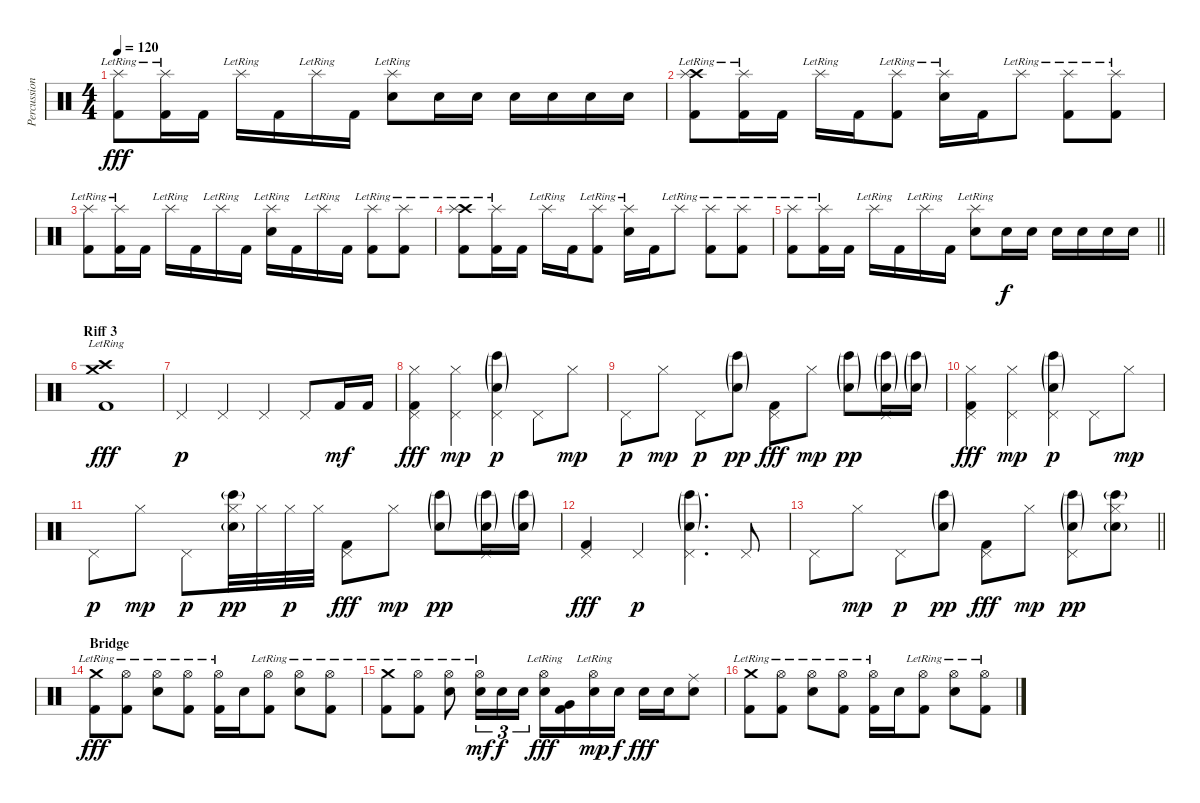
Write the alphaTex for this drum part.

\track ("Percussions" "Percussion") {instrument percussion}
\staff {score}
\articulation defaults
\ts (4 4)
\tempo 120
\clef neutral
\ks c
("Splash (hit)"{lr} "Kick (hit) 2").8{dy fff} ("Splash (hit)"{lr} "Kick (hit) 2").16 "Kick (hit) 2".16 "Splash (hit)"{lr}.16 "Kick (hit) 2".16 "Splash (hit)"{lr}.16 "Kick (hit) 2".16 ("Splash (hit)"{lr} "Electric Snare (hit)").8 "Electric Snare (hit)".16 "Electric Snare (hit)".16 "Electric Snare (hit)".16 "Electric Snare (hit)".16 "Electric Snare (hit)".16 "Electric Snare (hit)".16 |
("Crash high (hit)"{lr} "Splash (hit)"{lr} "Kick (hit) 2").8 ("Splash (hit)"{lr} "Kick (hit) 2").16 "Kick (hit) 2".16 "Splash (hit)"{lr}.16 "Kick (hit) 2".16 ("Splash (hit)"{lr} "Kick (hit) 2").8 ("Splash (hit)"{lr} "Electric Snare (hit)").16 "Kick (hit) 2".16 "Splash (hit)"{lr}.8 ("Splash (hit)"{lr} "Kick (hit) 2").8 ("Splash (hit)"{lr} "Kick (hit) 2").8 |
("Splash (hit)"{lr} "Kick (hit) 2").8 ("Splash (hit)"{lr} "Kick (hit) 2").16 "Kick (hit) 2".16 "Splash (hit)"{lr}.16 "Kick (hit) 2".16 "Splash (hit)"{lr}.16 "Kick (hit) 2".16 ("Splash (hit)"{lr} "Electric Snare (hit)").16 "Kick (hit) 2".16 "Splash (hit)"{lr}.16 "Kick (hit) 2".16 ("Splash (hit)"{lr} "Kick (hit) 2").8 ("Splash (hit)"{lr} "Kick (hit) 2").8 |
("Crash high (hit)"{lr} "Splash (hit)"{lr} "Kick (hit) 2").8 ("Splash (hit)"{lr} "Kick (hit) 2").16 "Kick (hit) 2".16 "Splash (hit)"{lr}.16 "Kick (hit) 2".16 ("Splash (hit)"{lr} "Kick (hit) 2").8 ("Splash (hit)"{lr} "Electric Snare (hit)").16 "Kick (hit) 2".16 "Splash (hit)"{lr}.8 ("Splash (hit)"{lr} "Kick (hit) 2").8 ("Splash (hit)"{lr} "Kick (hit) 2").8 |
\barLineRight lightlight
("Splash (hit)"{lr} "Kick (hit) 2").8 ("Splash (hit)"{lr} "Kick (hit) 2").16 "Kick (hit) 2".16 "Splash (hit)"{lr}.16 "Kick (hit) 2".16 "Splash (hit)"{lr}.16 "Kick (hit) 2".16 ("Splash (hit)"{lr} "Electric Snare (hit)").8 "Electric Snare (hit)".16{dy f} "Electric Snare (hit)".16 "Electric Snare (hit)".16 "Electric Snare (hit)".16 "Electric Snare (hit)".16 "Electric Snare (hit)".16 |
\section ("" "Riff 3")
("Crash high (hit)"{lr} "Crash medium (hit)"{lr} "Kick (hit) 2").1{dy fff} |
"Pedal Hi-Hat (hit)".4{dy p} "Pedal Hi-Hat (hit)".4 "Pedal Hi-Hat (hit)".4 "Pedal Hi-Hat (hit)".8 "Kick (hit) 2".16{dy mf} "Kick (hit) 2".16 |
("Pedal Hi-Hat (hit)" "Hi-Hat (closed)" "Kick (hit) 2").4{dy fff} ("Pedal Hi-Hat (hit)" "Hi-Hat (closed)").4{dy mp} ("Pedal Hi-Hat (hit)" "Bongo High (hit)"{g} "Electric Snare (hit)"{g}).4{dy p} "Pedal Hi-Hat (hit)".8 "Hi-Hat (closed)".8{dy mp} |
"Pedal Hi-Hat (hit)".8{dy p} "Hi-Hat (closed)".8{dy mp} "Pedal Hi-Hat (hit)".8{dy p} ("Bongo High (hit)"{g} "Electric Snare (hit)"{g}).8{dy pp} ("Pedal Hi-Hat (hit)" "Kick (hit) 2").8{dy fff} "Hi-Hat (closed)".8{dy mp} ("Bongo High (hit)"{g} "Electric Snare (hit)"{g}).8{dy pp} ("Pedal Hi-Hat (hit)" "Bongo High (hit)"{g} "Electric Snare (hit)"{g}).16 ("Bongo High (hit)"{g} "Electric Snare (hit)"{g}).16 |
("Pedal Hi-Hat (hit)" "Hi-Hat (closed)" "Kick (hit) 2").4{dy fff} ("Pedal Hi-Hat (hit)" "Hi-Hat (closed)").4{dy mp} ("Pedal Hi-Hat (hit)" "Bongo High (hit)"{g} "Electric Snare (hit)"{g}).4{dy p} "Pedal Hi-Hat (hit)".8 "Hi-Hat (closed)".8{dy mp} |
"Pedal Hi-Hat (hit)".8{dy p} "Hi-Hat (closed)".8{dy mp} "Pedal Hi-Hat (hit)".8{dy p} ("Hi-Hat (closed)" "Bongo High (hit)"{g} "Electric Snare (hit)"{g}).32{dy pp} "Hi-Hat (closed)".32 "Hi-Hat (closed)".32{dy p} "Hi-Hat (closed)".32 ("Pedal Hi-Hat (hit)" "Kick (hit) 2").8{dy fff} "Hi-Hat (closed)".8{dy mp} ("Bongo High (hit)"{g} "Electric Snare (hit)"{g}).8{dy pp} ("Pedal Hi-Hat (hit)" "Bongo High (hit)"{g} "Electric Snare (hit)"{g}).16 ("Bongo High (hit)"{g} "Electric Snare (hit)"{g}).16 |
("Pedal Hi-Hat (hit)" "Kick (hit) 2").4{dy fff} "Pedal Hi-Hat (hit)".4{dy p} ("Pedal Hi-Hat (hit)" "Bongo High (hit)"{g} "Electric Snare (hit)"{g}).4{d} "Pedal Hi-Hat (hit)".8 |
\barLineRight lightlight "Pedal Hi-Hat (hit)".8 "Hi-Hat (closed)".8{dy mp} "Pedal Hi-Hat (hit)".8{dy p}
("Bongo High (hit)"{g} "Electric Snare (hit)"{g}).8{dy pp} ("Pedal Hi-Hat (hit)" "Kick (hit) 2").8{dy fff} "Hi-Hat (closed)".8{dy mp} ("Pedal Hi-Hat (hit)" "Bongo High (hit)"{g} "Electric Snare (hit)"{g}).8{dy pp} ("Hi-Hat (closed)" "Bongo High (hit)"{g} "Electric Snare (hit)"{g}).8 |
\section ("" "Bridge")
("Crash medium (hit)"{lr} "Kick (hit) 2").8{dy fff} ("Hi-Hat (open)"{lr} "Kick (hit) 2").8 ("Hi-Hat (open)"{lr} "Electric Snare (hit)").8 ("Hi-Hat (open)"{lr} "Kick (hit) 2").8 ("Hi-Hat (open)"{lr} "Kick (hit) 2").16 "Electric Snare (hit)".16 ("Hi-Hat (open)"{lr} "Kick (hit) 2").8 ("Hi-Hat (open)"{lr} "Electric Snare (hit)").8 ("Hi-Hat (open)"{lr} "Kick (hit) 2").8 |
("Crash medium (hit)"{lr} "Kick (hit) 2").8 ("Hi-Hat (open)"{lr} "Kick (hit) 2").8 ("Hi-Hat (open)"{lr} "Electric Snare (hit)").8 ("Hi-Hat (open)"{lr} "Electric Snare (hit)").16{tu (3 2) dy mf} "Electric Snare (hit)".16{tu (3 2) dy f} "Electric Snare (hit)".16{tu (3 2)} ("Hi-Hat (open)"{lr} "Electric Snare (hit)").16{dy fff} ("Very Low Tom (hit)" "Kick (hit) 2").16 ("Hi-Hat (open)"{lr} "Electric Snare (hit)").16{dy mp} "Electric Snare (hit)".16{dy f} "Electric Snare (hit)".16{dy fff} "Electric Snare (hit)".16 ("Ride (middle)" "Electric Snare (hit)").8 |
("Crash medium (hit)"{lr} "Kick (hit) 2").8 ("Hi-Hat (open)"{lr} "Kick (hit) 2").8 ("Hi-Hat (open)"{lr} "Electric Snare (hit)").8 ("Hi-Hat (open)"{lr} "Kick (hit) 2").8 ("Hi-Hat (open)"{lr} "Kick (hit) 2").16 "Electric Snare (hit)".16 ("Hi-Hat (open)"{lr} "Kick (hit) 2").8 ("Hi-Hat (open)"{lr} "Electric Snare (hit)").8 ("Hi-Hat (open)"{lr} "Kick (hit) 2").8
